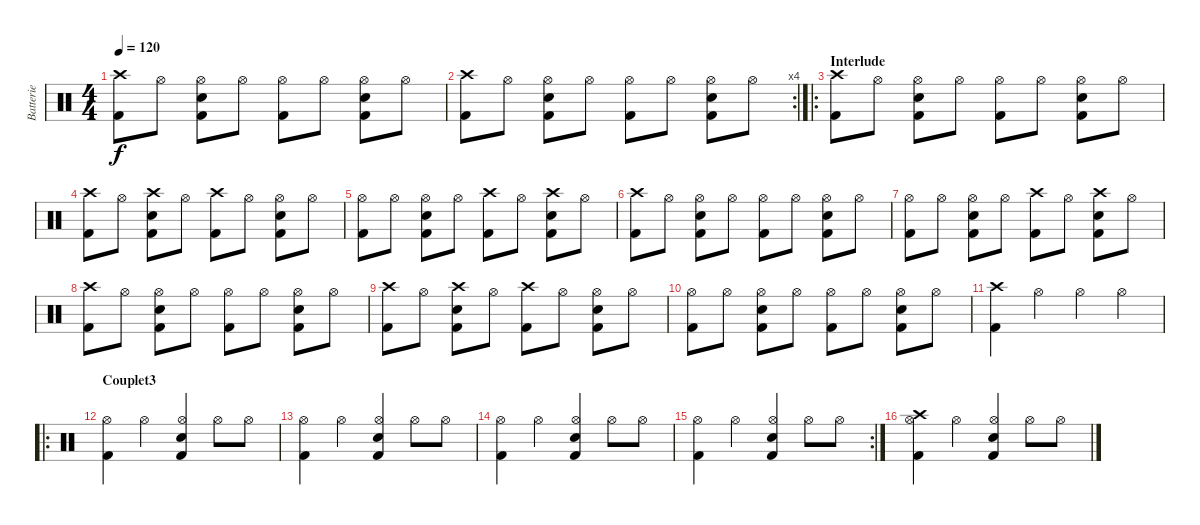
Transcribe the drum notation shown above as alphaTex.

\track ("Batterie" "Batterie") {instrument percussion}
\staff {score}
\articulation defaults
\ts (4 4)
\tempo 120
\clef neutral
\ks c
("Crash high (hit)" "Kick (hit) 2").8{dy f} "Hi-Hat (open)".8 ("Electric Snare (hit)" "Hi-Hat (open)" "Kick (hit) 2").8 "Hi-Hat (open)".8 ("Hi-Hat (open)" "Kick (hit) 2").8 "Hi-Hat (open)".8 ("Electric Snare (hit)" "Hi-Hat (open)" "Kick (hit) 2").8 "Hi-Hat (open)".8 |
\rc 4
("Crash high (hit)" "Kick (hit) 2").8 "Hi-Hat (open)".8 ("Electric Snare (hit)" "Hi-Hat (open)" "Kick (hit) 2").8 "Hi-Hat (open)".8 ("Hi-Hat (open)" "Kick (hit) 2").8 "Hi-Hat (open)".8 ("Electric Snare (hit)" "Hi-Hat (open)" "Kick (hit) 2").8 "Hi-Hat (open)".8 |
\ro
\section ("" "Interlude")
("Crash high (hit)" "Kick (hit) 2").8 "Hi-Hat (open)".8 ("Electric Snare (hit)" "Hi-Hat (open)" "Kick (hit) 2").8 "Hi-Hat (open)".8 ("Hi-Hat (open)" "Kick (hit) 2").8 "Hi-Hat (open)".8 ("Electric Snare (hit)" "Hi-Hat (open)" "Kick (hit) 2").8 "Hi-Hat (open)".8 |
("Crash high (hit)" "Kick (hit) 2").8 "Hi-Hat (open)".8 ("Crash high (hit)" "Electric Snare (hit)" "Kick (hit) 2").8 "Hi-Hat (open)".8 ("Crash high (hit)" "Kick (hit) 2").8 "Hi-Hat (open)".8 ("Electric Snare (hit)" "Hi-Hat (open)" "Kick (hit) 2").8 "Hi-Hat (open)".8 |
("Hi-Hat (open)" "Kick (hit) 2").8 "Hi-Hat (open)".8 ("Electric Snare (hit)" "Hi-Hat (open)" "Kick (hit) 2").8 "Hi-Hat (open)".8 ("Crash high (hit)" "Kick (hit) 2").8 "Hi-Hat (open)".8 ("Crash high (hit)" "Electric Snare (hit)" "Kick (hit) 2").8 "Hi-Hat (open)".8 |
("Crash high (hit)" "Kick (hit) 2").8 "Hi-Hat (open)".8 ("Electric Snare (hit)" "Hi-Hat (open)" "Kick (hit) 2").8 "Hi-Hat (open)".8 ("Hi-Hat (open)" "Kick (hit) 2").8 "Hi-Hat (open)".8 ("Electric Snare (hit)" "Hi-Hat (open)" "Kick (hit) 2").8 "Hi-Hat (open)".8 |
("Hi-Hat (open)" "Kick (hit) 2").8 "Hi-Hat (open)".8 ("Electric Snare (hit)" "Hi-Hat (open)" "Kick (hit) 2").8 "Hi-Hat (open)".8 ("Crash high (hit)" "Kick (hit) 2").8 "Hi-Hat (open)".8 ("Crash high (hit)" "Electric Snare (hit)" "Kick (hit) 2").8 "Hi-Hat (open)".8 |
("Crash high (hit)" "Kick (hit) 2").8 "Hi-Hat (open)".8 ("Electric Snare (hit)" "Hi-Hat (open)" "Kick (hit) 2").8 "Hi-Hat (open)".8 ("Hi-Hat (open)" "Kick (hit) 2").8 "Hi-Hat (open)".8 ("Electric Snare (hit)" "Hi-Hat (open)" "Kick (hit) 2").8 "Hi-Hat (open)".8 |
("Crash high (hit)" "Kick (hit) 2").8 "Hi-Hat (open)".8 ("Crash high (hit)" "Electric Snare (hit)" "Kick (hit) 2").8 "Hi-Hat (open)".8 ("Crash high (hit)" "Kick (hit) 2").8 "Hi-Hat (open)".8 ("Electric Snare (hit)" "Hi-Hat (open)" "Kick (hit) 2").8 "Hi-Hat (open)".8 |
("Hi-Hat (open)" "Kick (hit) 2").8 "Hi-Hat (open)".8 ("Electric Snare (hit)" "Hi-Hat (open)" "Kick (hit) 2").8 "Hi-Hat (open)".8 ("Hi-Hat (open)" "Kick (hit) 2").8 "Hi-Hat (open)".8 ("Electric Snare (hit)" "Hi-Hat (open)" "Kick (hit) 2").8 "Hi-Hat (open)".8 |
("Crash high (hit)" "Kick (hit) 2").4 "Hi-Hat (open)".4 "Hi-Hat (open)".4 "Hi-Hat (open)".4 |
\ro
\section ("" "Couplet3")
("Hi-Hat (open)" "Kick (hit) 2").4 "Hi-Hat (open)".4 ("Electric Snare (hit)" "Hi-Hat (open)" "Kick (hit) 2").4 "Hi-Hat (open)".8 "Hi-Hat (open)".8 |
("Hi-Hat (open)" "Kick (hit) 2").4 "Hi-Hat (open)".4 ("Electric Snare (hit)" "Hi-Hat (open)" "Kick (hit) 2").4 "Hi-Hat (open)".8 "Hi-Hat (open)".8 |
("Hi-Hat (open)" "Kick (hit) 2").4 "Hi-Hat (open)".4 ("Electric Snare (hit)" "Hi-Hat (open)" "Kick (hit) 2").4 "Hi-Hat (open)".8 "Hi-Hat (open)".8 |
\rc 2
("Hi-Hat (open)" "Kick (hit) 2").4 "Hi-Hat (open)".4 ("Electric Snare (hit)" "Hi-Hat (open)" "Kick (hit) 2").4 "Hi-Hat (open)".8 "Hi-Hat (open)".8 |
("Crash high (hit)" "Hi-Hat (open)" "Kick (hit) 2").4 "Hi-Hat (open)".4 ("Electric Snare (hit)" "Hi-Hat (open)" "Kick (hit) 2").4 "Hi-Hat (open)".8 "Hi-Hat (open)".8
